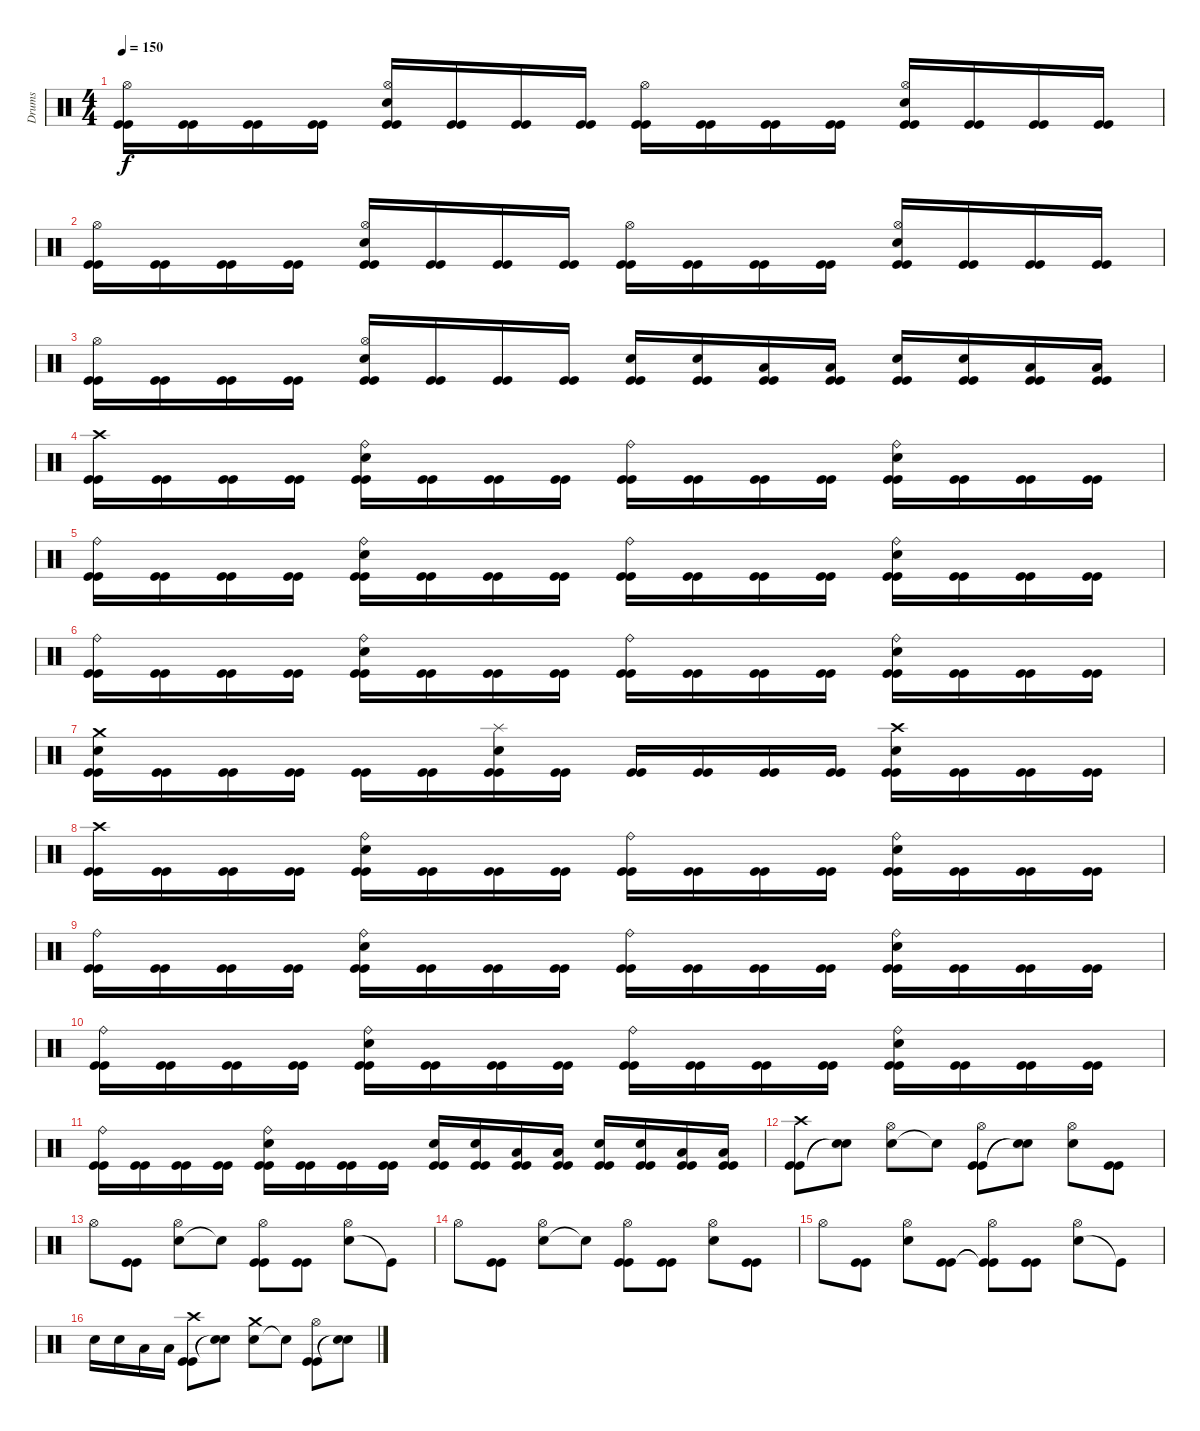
\track ("Drums" "Drums") {instrument percussion}
\staff {score}
\articulation defaults
\ts (4 4)
\tempo 150
\clef neutral
\ks c
("Kick (hit)" "Kick (hit)" "Hi-Hat (open)").16{dy f} ("Kick (hit)" "Kick (hit)").16 ("Kick (hit)" "Kick (hit)").16 ("Kick (hit)" "Kick (hit)").16 ("Kick (hit)" "Kick (hit)" "Snare (hit) 2" "Hi-Hat (open)").16 ("Kick (hit)" "Kick (hit)").16 ("Kick (hit)" "Kick (hit)").16 ("Kick (hit)" "Kick (hit)").16 ("Kick (hit)" "Kick (hit)" "Hi-Hat (open)").16 ("Kick (hit)" "Kick (hit)").16 ("Kick (hit)" "Kick (hit)").16 ("Kick (hit)" "Kick (hit)").16 ("Kick (hit)" "Kick (hit)" "Snare (hit) 2" "Hi-Hat (open)").16 ("Kick (hit)" "Kick (hit)").16 ("Kick (hit)" "Kick (hit)").16 ("Kick (hit)" "Kick (hit)").16 |
("Kick (hit)" "Kick (hit)" "Hi-Hat (open)").16 ("Kick (hit)" "Kick (hit)").16 ("Kick (hit)" "Kick (hit)").16 ("Kick (hit)" "Kick (hit)").16 ("Kick (hit)" "Kick (hit)" "Snare (hit) 2" "Hi-Hat (open)").16 ("Kick (hit)" "Kick (hit)").16 ("Kick (hit)" "Kick (hit)").16 ("Kick (hit)" "Kick (hit)").16 ("Kick (hit)" "Kick (hit)" "Hi-Hat (open)").16 ("Kick (hit)" "Kick (hit)").16 ("Kick (hit)" "Kick (hit)").16 ("Kick (hit)" "Kick (hit)").16 ("Kick (hit)" "Kick (hit)" "Snare (hit) 2" "Hi-Hat (open)").16 ("Kick (hit)" "Kick (hit)").16 ("Kick (hit)" "Kick (hit)").16 ("Kick (hit)" "Kick (hit)").16 |
("Kick (hit)" "Kick (hit)" "Hi-Hat (open)").16 ("Kick (hit)" "Kick (hit)").16 ("Kick (hit)" "Kick (hit)").16 ("Kick (hit)" "Kick (hit)").16 ("Kick (hit)" "Kick (hit)" "Snare (hit) 2" "Hi-Hat (open)").16 ("Kick (hit)" "Kick (hit)").16 ("Kick (hit)" "Kick (hit)").16 ("Kick (hit)" "Kick (hit)").16 ("Kick (hit)" "Kick (hit)" "Snare (hit) 2").16 ("Kick (hit)" "Kick (hit)" "Snare (hit) 2").16 ("Kick (hit)" "Kick (hit)" "Low Tom (hit)").16 ("Kick (hit)" "Kick (hit)" "Low Floor Tom (hit)").16 ("Kick (hit)" "Kick (hit)" "Snare (hit) 2").16 ("Kick (hit)" "Kick (hit)" "Snare (hit) 2").16 ("Kick (hit)" "Kick (hit)" "Low Tom (hit)").16 ("Kick (hit)" "Kick (hit)" "Low Floor Tom (hit)").16 |
("Kick (hit)" "Kick (hit)" "Crash high (hit)").16 ("Kick (hit)" "Kick (hit)").16 ("Kick (hit)" "Kick (hit)").16 ("Kick (hit)" "Kick (hit)").16 ("Kick (hit)" "Kick (hit)" "Snare (hit) 2" "Ride (bell)").16 ("Kick (hit)" "Kick (hit)").16 ("Kick (hit)" "Kick (hit)").16 ("Kick (hit)" "Kick (hit)").16 ("Kick (hit)" "Kick (hit)" "Ride (bell)").16 ("Kick (hit)" "Kick (hit)").16 ("Kick (hit)" "Kick (hit)").16 ("Kick (hit)" "Kick (hit)").16 ("Kick (hit)" "Kick (hit)" "Snare (hit) 2" "Ride (bell)").16 ("Kick (hit)" "Kick (hit)").16 ("Kick (hit)" "Kick (hit)").16 ("Kick (hit)" "Kick (hit)").16 |
("Kick (hit)" "Kick (hit)" "Ride (bell)").16 ("Kick (hit)" "Kick (hit)").16 ("Kick (hit)" "Kick (hit)").16 ("Kick (hit)" "Kick (hit)").16 ("Kick (hit)" "Kick (hit)" "Snare (hit) 2" "Ride (bell)").16 ("Kick (hit)" "Kick (hit)").16 ("Kick (hit)" "Kick (hit)").16 ("Kick (hit)" "Kick (hit)").16 ("Kick (hit)" "Kick (hit)" "Ride (bell)").16 ("Kick (hit)" "Kick (hit)").16 ("Kick (hit)" "Kick (hit)").16 ("Kick (hit)" "Kick (hit)").16 ("Kick (hit)" "Kick (hit)" "Snare (hit) 2" "Ride (bell)").16 ("Kick (hit)" "Kick (hit)").16 ("Kick (hit)" "Kick (hit)").16 ("Kick (hit)" "Kick (hit)").16 |
("Kick (hit)" "Kick (hit)" "Ride (bell)").16 ("Kick (hit)" "Kick (hit)").16 ("Kick (hit)" "Kick (hit)").16 ("Kick (hit)" "Kick (hit)").16 ("Kick (hit)" "Kick (hit)" "Snare (hit) 2" "Ride (bell)").16 ("Kick (hit)" "Kick (hit)").16 ("Kick (hit)" "Kick (hit)").16 ("Kick (hit)" "Kick (hit)").16 ("Kick (hit)" "Kick (hit)" "Ride (bell)").16 ("Kick (hit)" "Kick (hit)").16 ("Kick (hit)" "Kick (hit)").16 ("Kick (hit)" "Kick (hit)").16 ("Kick (hit)" "Kick (hit)" "Snare (hit) 2" "Ride (bell)").16 ("Kick (hit)" "Kick (hit)").16 ("Kick (hit)" "Kick (hit)").16 ("Kick (hit)" "Kick (hit)").16 |
("Kick (hit)" "Kick (hit)" "Snare (hit) 2" "Crash medium (hit)").16 ("Kick (hit)" "Kick (hit)").16 ("Kick (hit)" "Kick (hit)").16 ("Kick (hit)" "Kick (hit)").16 ("Kick (hit)" "Kick (hit)").16 ("Kick (hit)" "Kick (hit)").16 ("Kick (hit)" "Kick (hit)" "Snare (hit) 2" "Splash (hit)").16 ("Kick (hit)" "Kick (hit)").16 ("Kick (hit)" "Kick (hit)").16 ("Kick (hit)" "Kick (hit)").16 ("Kick (hit)" "Kick (hit)").16 ("Kick (hit)" "Kick (hit)").16 ("Kick (hit)" "Kick (hit)" "Snare (hit) 2" "Crash high (hit)").16 ("Kick (hit)" "Kick (hit)").16 ("Kick (hit)" "Kick (hit)").16 ("Kick (hit)" "Kick (hit)").16 |
("Kick (hit)" "Kick (hit)" "Crash high (hit)").16 ("Kick (hit)" "Kick (hit)").16 ("Kick (hit)" "Kick (hit)").16 ("Kick (hit)" "Kick (hit)").16 ("Kick (hit)" "Kick (hit)" "Snare (hit) 2" "Ride (bell)").16 ("Kick (hit)" "Kick (hit)").16 ("Kick (hit)" "Kick (hit)").16 ("Kick (hit)" "Kick (hit)").16 ("Kick (hit)" "Kick (hit)" "Ride (bell)").16 ("Kick (hit)" "Kick (hit)").16 ("Kick (hit)" "Kick (hit)").16 ("Kick (hit)" "Kick (hit)").16 ("Kick (hit)" "Kick (hit)" "Snare (hit) 2" "Ride (bell)").16 ("Kick (hit)" "Kick (hit)").16 ("Kick (hit)" "Kick (hit)").16 ("Kick (hit)" "Kick (hit)").16 |
("Kick (hit)" "Kick (hit)" "Ride (bell)").16 ("Kick (hit)" "Kick (hit)").16 ("Kick (hit)" "Kick (hit)").16 ("Kick (hit)" "Kick (hit)").16 ("Kick (hit)" "Kick (hit)" "Snare (hit) 2" "Ride (bell)").16 ("Kick (hit)" "Kick (hit)").16 ("Kick (hit)" "Kick (hit)").16 ("Kick (hit)" "Kick (hit)").16 ("Kick (hit)" "Kick (hit)" "Ride (bell)").16 ("Kick (hit)" "Kick (hit)").16 ("Kick (hit)" "Kick (hit)").16 ("Kick (hit)" "Kick (hit)").16 ("Kick (hit)" "Kick (hit)" "Snare (hit) 2" "Ride (bell)").16 ("Kick (hit)" "Kick (hit)").16 ("Kick (hit)" "Kick (hit)").16 ("Kick (hit)" "Kick (hit)").16 |
("Kick (hit)" "Kick (hit)" "Ride (bell)").16 ("Kick (hit)" "Kick (hit)").16 ("Kick (hit)" "Kick (hit)").16 ("Kick (hit)" "Kick (hit)").16 ("Kick (hit)" "Kick (hit)" "Snare (hit) 2" "Ride (bell)").16 ("Kick (hit)" "Kick (hit)").16 ("Kick (hit)" "Kick (hit)").16 ("Kick (hit)" "Kick (hit)").16 ("Kick (hit)" "Kick (hit)" "Ride (bell)").16 ("Kick (hit)" "Kick (hit)").16 ("Kick (hit)" "Kick (hit)").16 ("Kick (hit)" "Kick (hit)").16 ("Kick (hit)" "Kick (hit)" "Snare (hit) 2" "Ride (bell)").16 ("Kick (hit)" "Kick (hit)").16 ("Kick (hit)" "Kick (hit)").16 ("Kick (hit)" "Kick (hit)").16 |
("Kick (hit)" "Kick (hit)" "Ride (bell)").16 ("Kick (hit)" "Kick (hit)").16 ("Kick (hit)" "Kick (hit)").16 ("Kick (hit)" "Kick (hit)").16 ("Kick (hit)" "Kick (hit)" "Snare (hit) 2" "Ride (bell)").16 ("Kick (hit)" "Kick (hit)").16 ("Kick (hit)" "Kick (hit)").16 ("Kick (hit)" "Kick (hit)").16 ("Kick (hit)" "Kick (hit)" "Snare (hit) 2").16 ("Kick (hit)" "Kick (hit)" "Snare (hit) 2").16 ("Kick (hit)" "Kick (hit)" "Low Tom (hit)").16 ("Kick (hit)" "Kick (hit)" "Low Floor Tom (hit)").16 ("Kick (hit)" "Kick (hit)" "Snare (hit) 2").16 ("Kick (hit)" "Kick (hit)" "Snare (hit) 2").16 ("Kick (hit)" "Kick (hit)" "Low Tom (hit)").16 ("Kick (hit)" "Kick (hit)" "Low Floor Tom (hit)").16 |
("Kick (hit)" "Kick (hit)" "Crash high (hit)").8 ("Snare (hit)"{t} "Snare (hit)"{t}).8 ("Snare (hit) 2" "Hi-Hat (open)").8 "Snare (hit)"{t}.8 ("Kick (hit)" "Kick (hit)" "Hi-Hat (open)").8 ("Snare (hit)"{t} "Snare (hit)"{t}).8 ("Snare (hit) 2" "Hi-Hat (open)").8 ("Kick (hit)" "Kick (hit)").8 |
"Hi-Hat (open)".8 ("Kick (hit)" "Kick (hit)").8 ("Snare (hit) 2" "Hi-Hat (open)").8 "Snare (hit)"{t}.8 ("Kick (hit)" "Kick (hit)" "Hi-Hat (open)").8 ("Kick (hit)" "Kick (hit)").8 ("Snare (hit) 2" "Hi-Hat (open)").8 "Kick (hit)"{t}.8 |
"Hi-Hat (open)".8 ("Kick (hit)" "Kick (hit)").8 ("Snare (hit) 2" "Hi-Hat (open)").8 "Snare (hit)"{t}.8 ("Kick (hit)" "Kick (hit)" "Hi-Hat (open)").8 ("Kick (hit)" "Kick (hit)").8 ("Snare (hit) 2" "Hi-Hat (open)").8 ("Kick (hit)" "Kick (hit)").8 |
"Hi-Hat (open)".8 ("Kick (hit)" "Kick (hit)").8 ("Snare (hit) 2" "Hi-Hat (open)").8 ("Kick (hit)" "Kick (hit)").8 ("Kick (hit)"{t} "Kick (hit)"{t} "Hi-Hat (open)").8 ("Kick (hit)" "Kick (hit)").8 ("Snare (hit) 2" "Hi-Hat (open)").8 "Kick (hit)"{t}.8 |
"Snare (hit) 2".16 "Snare (hit) 2".16 "Low Tom (hit)".16 "Low Floor Tom (hit)".16 ("Kick (hit)" "Kick (hit)" "Crash high (hit)").8 ("Snare (hit)"{t} "Snare (hit)"{t}).8 ("Snare (hit) 2" "Crash medium (hit)").8 "Snare (hit)"{t}.8 ("Kick (hit)" "Kick (hit)" "Hi-Hat (open)").8 ("Snare (hit)"{t} "Snare (hit)"{t}).8
